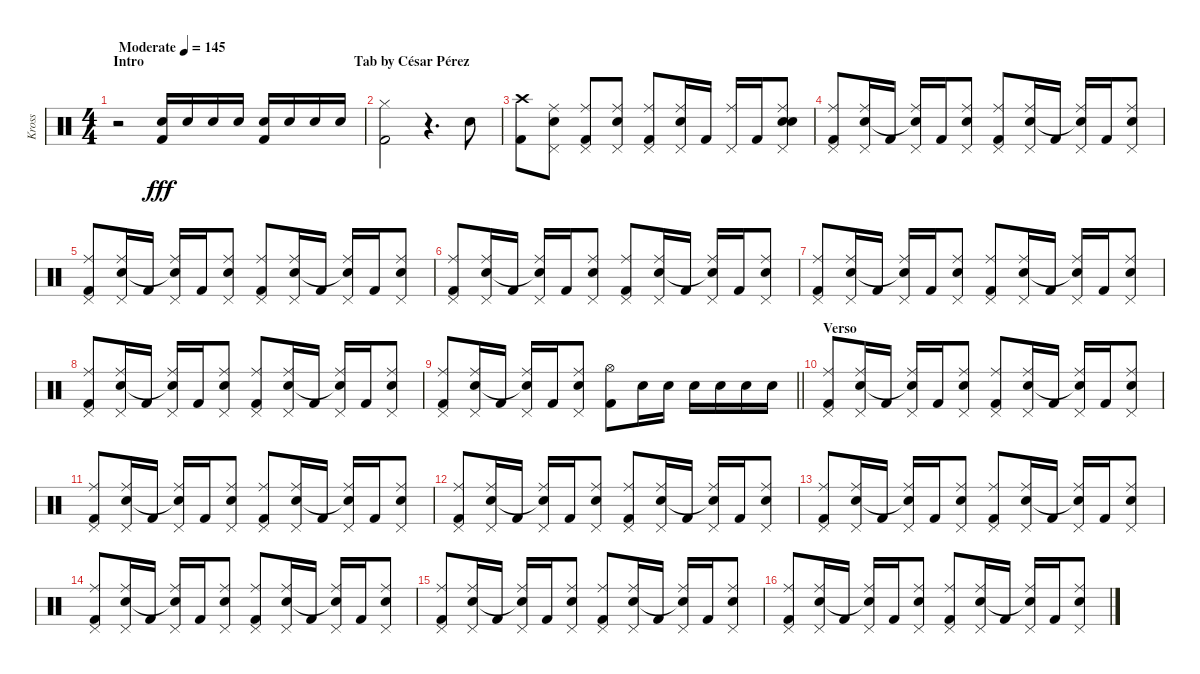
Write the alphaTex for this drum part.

\track ("Kross" "Kross") {instrument percussion}
\staff {score}
\articulation defaults
\ts (4 4)
\section ("" "Intro                                                            Tab by César Pérez")
\tempo (145 "Moderate")
\clef neutral
\ks c
r.2{dy fff} ("Electric Snare (hit)" "Kick (hit) 2").16 "Electric Snare (hit)".16 "Electric Snare (hit)".16 "Electric Snare (hit)".16 ("Electric Snare (hit)" "Kick (hit) 2").16 "Electric Snare (hit)".16 "Electric Snare (hit)".16 "Electric Snare (hit)".16 |
("Hi-Hat (closed)" "Kick (hit) 2").2 r.4{d} "Electric Snare (hit)".8 |
("Crash high (hit)" "Kick (hit) 2").8 ("Ride (middle)" "Pedal Hi-Hat (hit)" "Electric Snare (hit)").8 ("Ride (middle)" "Pedal Hi-Hat (hit)" "Kick (hit) 2").8 ("Ride (middle)" "Pedal Hi-Hat (hit)" "Electric Snare (hit)").8 ("Ride (middle)" "Pedal Hi-Hat (hit)" "Kick (hit) 2").8 ("Ride (middle)" "Pedal Hi-Hat (hit)" "Electric Snare (hit)").16 "Kick (hit) 2".16 ("Ride (middle)" "Pedal Hi-Hat (hit)").16 "Kick (hit) 2".16 ("Ride (middle)" "Pedal Hi-Hat (hit)" "Electric Snare (hit)" "Snare (hit)").8 |
("Ride (middle)" "Pedal Hi-Hat (hit)" "Kick (hit) 2").8 ("Ride (middle)" "Pedal Hi-Hat (hit)" "Electric Snare (hit)").16 "Kick (hit) 2".16 ("Ride (middle)" "Pedal Hi-Hat (hit)" "Snare (hit)"{t}).16 "Kick (hit) 2".16 ("Ride (middle)" "Pedal Hi-Hat (hit)" "Electric Snare (hit)").8 ("Ride (middle)" "Pedal Hi-Hat (hit)" "Kick (hit) 2").8 ("Ride (middle)" "Pedal Hi-Hat (hit)" "Electric Snare (hit)").16 "Kick (hit) 2".16 ("Ride (middle)" "Pedal Hi-Hat (hit)" "Snare (hit)"{t}).16 "Kick (hit) 2".16 ("Ride (middle)" "Pedal Hi-Hat (hit)" "Electric Snare (hit)").8 |
("Ride (middle)" "Pedal Hi-Hat (hit)" "Kick (hit) 2").8 ("Ride (middle)" "Pedal Hi-Hat (hit)" "Electric Snare (hit)").16 "Kick (hit) 2".16 ("Ride (middle)" "Pedal Hi-Hat (hit)" "Snare (hit)"{t}).16 "Kick (hit) 2".16 ("Ride (middle)" "Pedal Hi-Hat (hit)" "Electric Snare (hit)").8 ("Ride (middle)" "Pedal Hi-Hat (hit)" "Kick (hit) 2").8 ("Ride (middle)" "Pedal Hi-Hat (hit)" "Electric Snare (hit)").16 "Kick (hit) 2".16 ("Ride (middle)" "Pedal Hi-Hat (hit)" "Snare (hit)"{t}).16 "Kick (hit) 2".16 ("Ride (middle)" "Pedal Hi-Hat (hit)" "Electric Snare (hit)").8 |
("Ride (middle)" "Pedal Hi-Hat (hit)" "Kick (hit) 2").8 ("Ride (middle)" "Pedal Hi-Hat (hit)" "Electric Snare (hit)").16 "Kick (hit) 2".16 ("Ride (middle)" "Pedal Hi-Hat (hit)" "Snare (hit)"{t}).16 "Kick (hit) 2".16 ("Ride (middle)" "Pedal Hi-Hat (hit)" "Electric Snare (hit)").8 ("Ride (middle)" "Pedal Hi-Hat (hit)" "Kick (hit) 2").8 ("Ride (middle)" "Pedal Hi-Hat (hit)" "Electric Snare (hit)").16 "Kick (hit) 2".16 ("Ride (middle)" "Pedal Hi-Hat (hit)" "Snare (hit)"{t}).16 "Kick (hit) 2".16 ("Ride (middle)" "Pedal Hi-Hat (hit)" "Electric Snare (hit)").8 |
("Ride (middle)" "Pedal Hi-Hat (hit)" "Kick (hit) 2").8 ("Ride (middle)" "Pedal Hi-Hat (hit)" "Electric Snare (hit)").16 "Kick (hit) 2".16 ("Ride (middle)" "Pedal Hi-Hat (hit)" "Snare (hit)"{t}).16 "Kick (hit) 2".16 ("Ride (middle)" "Pedal Hi-Hat (hit)" "Electric Snare (hit)").8 ("Ride (middle)" "Pedal Hi-Hat (hit)" "Kick (hit) 2").8 ("Ride (middle)" "Pedal Hi-Hat (hit)" "Electric Snare (hit)").16 "Kick (hit) 2".16 ("Ride (middle)" "Pedal Hi-Hat (hit)" "Snare (hit)"{t}).16 "Kick (hit) 2".16 ("Ride (middle)" "Pedal Hi-Hat (hit)" "Electric Snare (hit)").8 |
("Ride (middle)" "Pedal Hi-Hat (hit)" "Kick (hit) 2").8 ("Ride (middle)" "Pedal Hi-Hat (hit)" "Electric Snare (hit)").16 "Kick (hit) 2".16 ("Ride (middle)" "Pedal Hi-Hat (hit)" "Snare (hit)"{t}).16 "Kick (hit) 2".16 ("Ride (middle)" "Pedal Hi-Hat (hit)" "Electric Snare (hit)").8 ("Ride (middle)" "Pedal Hi-Hat (hit)" "Kick (hit) 2").8 ("Ride (middle)" "Pedal Hi-Hat (hit)" "Electric Snare (hit)").16 "Kick (hit) 2".16 ("Ride (middle)" "Pedal Hi-Hat (hit)" "Snare (hit)"{t}).16 "Kick (hit) 2".16 ("Ride (middle)" "Pedal Hi-Hat (hit)" "Electric Snare (hit)").8 |
\barLineRight lightlight
("Ride (middle)" "Pedal Hi-Hat (hit)" "Kick (hit) 2").8 ("Ride (middle)" "Pedal Hi-Hat (hit)" "Electric Snare (hit)").16 "Kick (hit) 2".16 ("Ride (middle)" "Pedal Hi-Hat (hit)" "Snare (hit)"{t}).16 "Kick (hit) 2".16 ("Ride (middle)" "Pedal Hi-Hat (hit)" "Electric Snare (hit)").8 ("Hi-Hat (open)" "Kick (hit) 2").8 "Electric Snare (hit)".16 "Electric Snare (hit)".16 "Electric Snare (hit)".16 "Electric Snare (hit)".16 "Electric Snare (hit)".16 "Electric Snare (hit)".16 |
\section ("" "Verso")
("Ride (middle)" "Pedal Hi-Hat (hit)" "Kick (hit) 2").8 ("Ride (middle)" "Pedal Hi-Hat (hit)" "Electric Snare (hit)").16 "Kick (hit) 2".16 ("Ride (middle)" "Pedal Hi-Hat (hit)" "Snare (hit)"{t}).16 "Kick (hit) 2".16 ("Ride (middle)" "Pedal Hi-Hat (hit)" "Electric Snare (hit)").8 ("Ride (middle)" "Pedal Hi-Hat (hit)" "Kick (hit) 2").8 ("Ride (middle)" "Pedal Hi-Hat (hit)" "Electric Snare (hit)").16 "Kick (hit) 2".16 ("Ride (middle)" "Pedal Hi-Hat (hit)" "Snare (hit)"{t}).16 "Kick (hit) 2".16 ("Ride (middle)" "Pedal Hi-Hat (hit)" "Electric Snare (hit)").8 |
("Ride (middle)" "Pedal Hi-Hat (hit)" "Kick (hit) 2").8 ("Ride (middle)" "Pedal Hi-Hat (hit)" "Electric Snare (hit)").16 "Kick (hit) 2".16 ("Ride (middle)" "Pedal Hi-Hat (hit)" "Snare (hit)"{t}).16 "Kick (hit) 2".16 ("Ride (middle)" "Pedal Hi-Hat (hit)" "Electric Snare (hit)").8 ("Ride (middle)" "Pedal Hi-Hat (hit)" "Kick (hit) 2").8 ("Ride (middle)" "Pedal Hi-Hat (hit)" "Electric Snare (hit)").16 "Kick (hit) 2".16 ("Ride (middle)" "Pedal Hi-Hat (hit)" "Snare (hit)"{t}).16 "Kick (hit) 2".16 ("Ride (middle)" "Pedal Hi-Hat (hit)" "Electric Snare (hit)").8 |
("Ride (middle)" "Pedal Hi-Hat (hit)" "Kick (hit) 2").8 ("Ride (middle)" "Pedal Hi-Hat (hit)" "Electric Snare (hit)").16 "Kick (hit) 2".16 ("Ride (middle)" "Pedal Hi-Hat (hit)" "Snare (hit)"{t}).16 "Kick (hit) 2".16 ("Ride (middle)" "Pedal Hi-Hat (hit)" "Electric Snare (hit)").8 ("Ride (middle)" "Pedal Hi-Hat (hit)" "Kick (hit) 2").8 ("Ride (middle)" "Pedal Hi-Hat (hit)" "Electric Snare (hit)").16 "Kick (hit) 2".16 ("Ride (middle)" "Pedal Hi-Hat (hit)" "Snare (hit)"{t}).16 "Kick (hit) 2".16 ("Ride (middle)" "Pedal Hi-Hat (hit)" "Electric Snare (hit)").8 |
("Ride (middle)" "Pedal Hi-Hat (hit)" "Kick (hit) 2").8 ("Ride (middle)" "Pedal Hi-Hat (hit)" "Electric Snare (hit)").16 "Kick (hit) 2".16 ("Ride (middle)" "Pedal Hi-Hat (hit)" "Snare (hit)"{t}).16 "Kick (hit) 2".16 ("Ride (middle)" "Pedal Hi-Hat (hit)" "Electric Snare (hit)").8 ("Ride (middle)" "Pedal Hi-Hat (hit)" "Kick (hit) 2").8 ("Ride (middle)" "Pedal Hi-Hat (hit)" "Electric Snare (hit)").16 "Kick (hit) 2".16 ("Ride (middle)" "Pedal Hi-Hat (hit)" "Snare (hit)"{t}).16 "Kick (hit) 2".16 ("Ride (middle)" "Pedal Hi-Hat (hit)" "Electric Snare (hit)").8 |
("Ride (middle)" "Pedal Hi-Hat (hit)" "Kick (hit) 2").8 ("Ride (middle)" "Pedal Hi-Hat (hit)" "Electric Snare (hit)").16 "Kick (hit) 2".16 ("Ride (middle)" "Pedal Hi-Hat (hit)" "Snare (hit)"{t}).16 "Kick (hit) 2".16 ("Ride (middle)" "Pedal Hi-Hat (hit)" "Electric Snare (hit)").8 ("Ride (middle)" "Pedal Hi-Hat (hit)" "Kick (hit) 2").8 ("Ride (middle)" "Pedal Hi-Hat (hit)" "Electric Snare (hit)").16 "Kick (hit) 2".16 ("Ride (middle)" "Pedal Hi-Hat (hit)" "Snare (hit)"{t}).16 "Kick (hit) 2".16 ("Ride (middle)" "Pedal Hi-Hat (hit)" "Electric Snare (hit)").8 |
("Ride (middle)" "Pedal Hi-Hat (hit)" "Kick (hit) 2").8 ("Ride (middle)" "Pedal Hi-Hat (hit)" "Electric Snare (hit)").16 "Kick (hit) 2".16 ("Ride (middle)" "Pedal Hi-Hat (hit)" "Snare (hit)"{t}).16 "Kick (hit) 2".16 ("Ride (middle)" "Pedal Hi-Hat (hit)" "Electric Snare (hit)").8 ("Ride (middle)" "Pedal Hi-Hat (hit)" "Kick (hit) 2").8 ("Ride (middle)" "Pedal Hi-Hat (hit)" "Electric Snare (hit)").16 "Kick (hit) 2".16 ("Ride (middle)" "Pedal Hi-Hat (hit)" "Snare (hit)"{t}).16 "Kick (hit) 2".16 ("Ride (middle)" "Pedal Hi-Hat (hit)" "Electric Snare (hit)").8 |
("Ride (middle)" "Pedal Hi-Hat (hit)" "Kick (hit) 2").8 ("Ride (middle)" "Pedal Hi-Hat (hit)" "Electric Snare (hit)").16 "Kick (hit) 2".16 ("Ride (middle)" "Pedal Hi-Hat (hit)" "Snare (hit)"{t}).16 "Kick (hit) 2".16 ("Ride (middle)" "Pedal Hi-Hat (hit)" "Electric Snare (hit)").8 ("Ride (middle)" "Pedal Hi-Hat (hit)" "Kick (hit) 2").8 ("Ride (middle)" "Pedal Hi-Hat (hit)" "Electric Snare (hit)").16 "Kick (hit) 2".16 ("Ride (middle)" "Pedal Hi-Hat (hit)" "Snare (hit)"{t}).16 "Kick (hit) 2".16 ("Ride (middle)" "Pedal Hi-Hat (hit)" "Electric Snare (hit)").8
